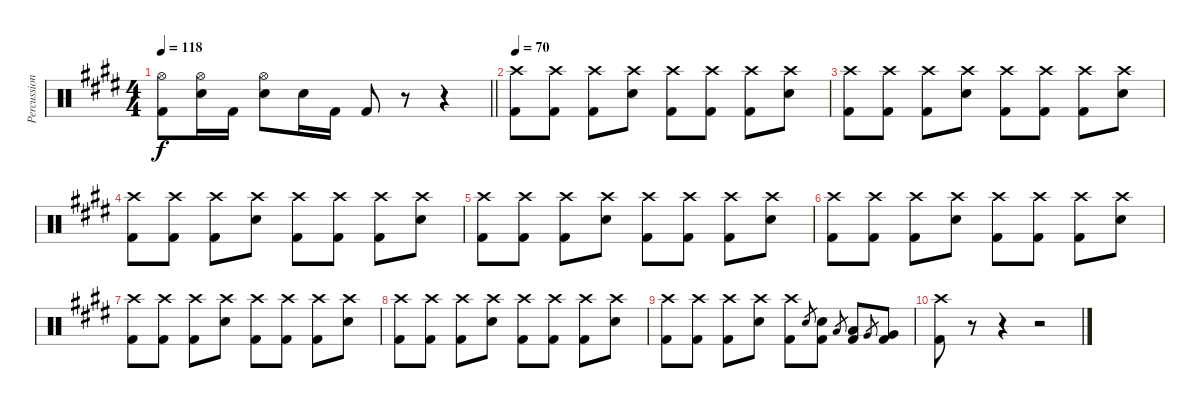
\track ("Percussion" "Percussion") {instrument percussion}
\staff {score}
\articulation defaults
\ts (4 4)
\tempo 118
\clef neutral
\barLineRight lightlight
\ks e
("Hi-Hat (open)" "Kick (hit) 2").8{dy f} ("Hi-Hat (open)" "Electric Snare (hit)").16 "Kick (hit) 2".16 ("Hi-Hat (open)" "Electric Snare (hit)").8 "Electric Snare (hit)".16 "Kick (hit) 2".16 "Kick (hit) 2".8 r.8 r.4 |
\tempo 70
("Crash high (hit)" "Kick (hit) 2").8 ("Crash high (hit)" "Kick (hit) 2").8 ("Crash high (hit)" "Kick (hit) 2").8 ("Crash high (hit)" "Electric Snare (hit)").8 ("Crash high (hit)" "Kick (hit) 2").8 ("Crash high (hit)" "Kick (hit) 2").8 ("Crash high (hit)" "Kick (hit) 2").8 ("Crash high (hit)" "Electric Snare (hit)").8 |
("Crash high (hit)" "Kick (hit) 2").8 ("Crash high (hit)" "Kick (hit) 2").8 ("Crash high (hit)" "Kick (hit) 2").8 ("Crash high (hit)" "Electric Snare (hit)").8 ("Crash high (hit)" "Kick (hit) 2").8 ("Crash high (hit)" "Kick (hit) 2").8 ("Crash high (hit)" "Kick (hit) 2").8 ("Crash high (hit)" "Electric Snare (hit)").8 |
("Crash high (hit)" "Kick (hit) 2").8 ("Crash high (hit)" "Kick (hit) 2").8 ("Crash high (hit)" "Kick (hit) 2").8 ("Crash high (hit)" "Electric Snare (hit)").8 ("Crash high (hit)" "Kick (hit) 2").8 ("Crash high (hit)" "Kick (hit) 2").8 ("Crash high (hit)" "Kick (hit) 2").8 ("Crash high (hit)" "Electric Snare (hit)").8 |
("Crash high (hit)" "Kick (hit) 2").8 ("Crash high (hit)" "Kick (hit) 2").8 ("Crash high (hit)" "Kick (hit) 2").8 ("Crash high (hit)" "Electric Snare (hit)").8 ("Crash high (hit)" "Kick (hit) 2").8 ("Crash high (hit)" "Kick (hit) 2").8 ("Crash high (hit)" "Kick (hit) 2").8 ("Crash high (hit)" "Electric Snare (hit)").8 |
("Crash high (hit)" "Kick (hit) 2").8 ("Crash high (hit)" "Kick (hit) 2").8 ("Crash high (hit)" "Kick (hit) 2").8 ("Crash high (hit)" "Electric Snare (hit)").8 ("Crash high (hit)" "Kick (hit) 2").8 ("Crash high (hit)" "Kick (hit) 2").8 ("Crash high (hit)" "Kick (hit) 2").8 ("Crash high (hit)" "Electric Snare (hit)").8 |
("Crash high (hit)" "Kick (hit) 2").8 ("Crash high (hit)" "Kick (hit) 2").8 ("Crash high (hit)" "Kick (hit) 2").8 ("Crash high (hit)" "Electric Snare (hit)").8 ("Crash high (hit)" "Kick (hit) 2").8 ("Crash high (hit)" "Kick (hit) 2").8 ("Crash high (hit)" "Kick (hit) 2").8 ("Crash high (hit)" "Electric Snare (hit)").8 |
("Crash high (hit)" "Kick (hit) 2").8 ("Crash high (hit)" "Kick (hit) 2").8 ("Crash high (hit)" "Kick (hit) 2").8 ("Crash high (hit)" "Electric Snare (hit)").8 ("Crash high (hit)" "Kick (hit) 2").8 ("Crash high (hit)" "Kick (hit) 2").8 ("Crash high (hit)" "Kick (hit) 2").8 ("Crash high (hit)" "Electric Snare (hit)").8 |
("Crash high (hit)" "Kick (hit) 2").8 ("Crash high (hit)" "Kick (hit) 2").8 ("Crash high (hit)" "Kick (hit) 2").8 ("Crash high (hit)" "Electric Snare (hit)").8 ("Crash high (hit)" "Kick (hit) 2").8 "Electric Snare (hit)".8{gr} ("Electric Snare (hit)" "Kick (hit) 2").8 "Low Tom (hit)".8{gr} ("Low Tom (hit)" "Kick (hit) 2").8 "Very Low Tom (hit)".8{gr} ("Very Low Tom (hit)" "Kick (hit) 2").8 |
("Crash high (hit)" "Kick (hit) 2").8 r.8 r.4 r.2
